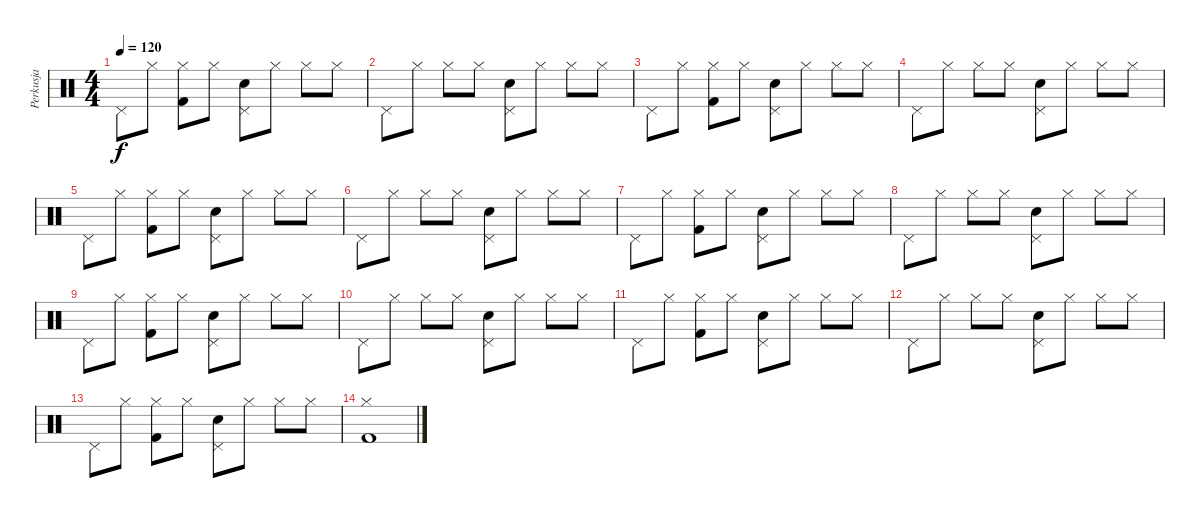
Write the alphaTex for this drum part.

\track ("Perkusja" "Perkusja") {instrument percussion}
\staff {score}
\articulation defaults
\ts (4 4)
\tempo 120
\clef neutral
\ks c "Pedal Hi-Hat (hit)".8{dy f} "Hi-Hat (closed)".8
("Hi-Hat (closed)" "Kick (hit) 2").8 "Hi-Hat (closed)".8 ("Pedal Hi-Hat (hit)" "Snare (hit) 2").8 "Hi-Hat (closed)".8 "Hi-Hat (closed)".8 "Hi-Hat (closed)".8 |
"Pedal Hi-Hat (hit)".8 "Hi-Hat (closed)".8 "Hi-Hat (closed)".8 "Hi-Hat (closed)".8 ("Pedal Hi-Hat (hit)" "Snare (hit) 2").8 "Hi-Hat (closed)".8 "Hi-Hat (closed)".8 "Hi-Hat (closed)".8 |
"Pedal Hi-Hat (hit)".8 "Hi-Hat (closed)".8 ("Hi-Hat (closed)" "Kick (hit) 2").8 "Hi-Hat (closed)".8 ("Pedal Hi-Hat (hit)" "Snare (hit) 2").8 "Hi-Hat (closed)".8 "Hi-Hat (closed)".8 "Hi-Hat (closed)".8 |
"Pedal Hi-Hat (hit)".8 "Hi-Hat (closed)".8 "Hi-Hat (closed)".8 "Hi-Hat (closed)".8 ("Pedal Hi-Hat (hit)" "Snare (hit) 2").8 "Hi-Hat (closed)".8 "Hi-Hat (closed)".8 "Hi-Hat (closed)".8 |
"Pedal Hi-Hat (hit)".8 "Hi-Hat (closed)".8 ("Hi-Hat (closed)" "Kick (hit) 2").8 "Hi-Hat (closed)".8 ("Pedal Hi-Hat (hit)" "Snare (hit) 2").8 "Hi-Hat (closed)".8 "Hi-Hat (closed)".8 "Hi-Hat (closed)".8 |
"Pedal Hi-Hat (hit)".8 "Hi-Hat (closed)".8 "Hi-Hat (closed)".8 "Hi-Hat (closed)".8 ("Pedal Hi-Hat (hit)" "Snare (hit) 2").8 "Hi-Hat (closed)".8 "Hi-Hat (closed)".8 "Hi-Hat (closed)".8 |
"Pedal Hi-Hat (hit)".8 "Hi-Hat (closed)".8 ("Hi-Hat (closed)" "Kick (hit) 2").8 "Hi-Hat (closed)".8 ("Pedal Hi-Hat (hit)" "Snare (hit) 2").8 "Hi-Hat (closed)".8 "Hi-Hat (closed)".8 "Hi-Hat (closed)".8 |
"Pedal Hi-Hat (hit)".8 "Hi-Hat (closed)".8 "Hi-Hat (closed)".8 "Hi-Hat (closed)".8 ("Pedal Hi-Hat (hit)" "Snare (hit) 2").8 "Hi-Hat (closed)".8 "Hi-Hat (closed)".8 "Hi-Hat (closed)".8 |
"Pedal Hi-Hat (hit)".8 "Hi-Hat (closed)".8 ("Hi-Hat (closed)" "Kick (hit) 2").8 "Hi-Hat (closed)".8 ("Pedal Hi-Hat (hit)" "Snare (hit) 2").8 "Hi-Hat (closed)".8 "Hi-Hat (closed)".8 "Hi-Hat (closed)".8 |
"Pedal Hi-Hat (hit)".8 "Hi-Hat (closed)".8 "Hi-Hat (closed)".8 "Hi-Hat (closed)".8 ("Pedal Hi-Hat (hit)" "Snare (hit) 2").8 "Hi-Hat (closed)".8 "Hi-Hat (closed)".8 "Hi-Hat (closed)".8 |
"Pedal Hi-Hat (hit)".8 "Hi-Hat (closed)".8 ("Hi-Hat (closed)" "Kick (hit) 2").8 "Hi-Hat (closed)".8 ("Pedal Hi-Hat (hit)" "Snare (hit) 2").8 "Hi-Hat (closed)".8 "Hi-Hat (closed)".8 "Hi-Hat (closed)".8 |
"Pedal Hi-Hat (hit)".8 "Hi-Hat (closed)".8 "Hi-Hat (closed)".8 "Hi-Hat (closed)".8 ("Pedal Hi-Hat (hit)" "Snare (hit) 2").8 "Hi-Hat (closed)".8 "Hi-Hat (closed)".8 "Hi-Hat (closed)".8 |
"Pedal Hi-Hat (hit)".8 "Hi-Hat (closed)".8 ("Hi-Hat (closed)" "Kick (hit) 2").8 "Hi-Hat (closed)".8 ("Pedal Hi-Hat (hit)" "Snare (hit) 2").8 "Hi-Hat (closed)".8 "Hi-Hat (closed)".8 "Hi-Hat (closed)".8 |
("Kick (hit) 2" "Hi-Hat (closed)").1
